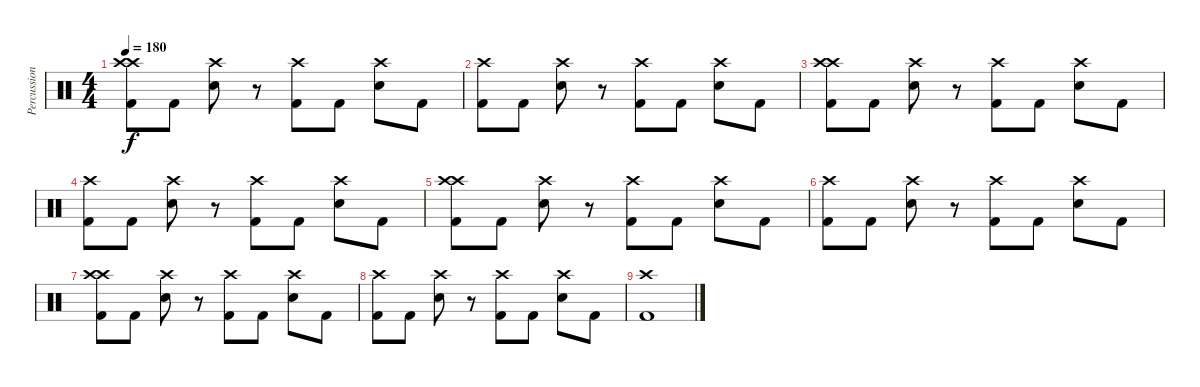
\track ("Percussion" "Percussion") {instrument percussion}
\staff {score}
\articulation defaults
\ts (4 4)
\tempo 180
\clef neutral
\ks c
("Crash high (hit)" "Kick (hit) 2" "Crash high (hit)").8{dy f} "Kick (hit) 2".8 ("Crash high (hit)" "Snare (hit) 2").8 r.8 ("Crash high (hit)" "Kick (hit) 2").8 "Kick (hit) 2".8 ("Crash high (hit)" "Snare (hit) 2").8 "Kick (hit) 2".8 |
("Crash high (hit)" "Kick (hit) 2").8 "Kick (hit) 2".8 ("Crash high (hit)" "Snare (hit) 2").8 r.8 ("Crash high (hit)" "Kick (hit) 2").8 "Kick (hit) 2".8 ("Crash high (hit)" "Snare (hit) 2").8 "Kick (hit) 2".8 |
("Crash high (hit)" "Kick (hit) 2" "Crash high (hit)").8 "Kick (hit) 2".8 ("Crash high (hit)" "Snare (hit) 2").8 r.8 ("Crash high (hit)" "Kick (hit) 2").8 "Kick (hit) 2".8 ("Crash high (hit)" "Snare (hit) 2").8 "Kick (hit) 2".8 |
("Crash high (hit)" "Kick (hit) 2").8 "Kick (hit) 2".8 ("Crash high (hit)" "Snare (hit) 2").8 r.8 ("Crash high (hit)" "Kick (hit) 2").8 "Kick (hit) 2".8 ("Crash high (hit)" "Snare (hit) 2").8 "Kick (hit) 2".8 |
("Crash high (hit)" "Kick (hit) 2" "Crash high (hit)").8 "Kick (hit) 2".8 ("Crash high (hit)" "Snare (hit) 2").8 r.8 ("Crash high (hit)" "Kick (hit) 2").8 "Kick (hit) 2".8 ("Crash high (hit)" "Snare (hit) 2").8 "Kick (hit) 2".8 |
("Crash high (hit)" "Kick (hit) 2").8 "Kick (hit) 2".8 ("Crash high (hit)" "Snare (hit) 2").8 r.8 ("Crash high (hit)" "Kick (hit) 2").8 "Kick (hit) 2".8 ("Crash high (hit)" "Snare (hit) 2").8 "Kick (hit) 2".8 |
("Crash high (hit)" "Kick (hit) 2" "Crash high (hit)").8 "Kick (hit) 2".8 ("Crash high (hit)" "Snare (hit) 2").8 r.8 ("Crash high (hit)" "Kick (hit) 2").8 "Kick (hit) 2".8 ("Crash high (hit)" "Snare (hit) 2").8 "Kick (hit) 2".8 |
("Crash high (hit)" "Kick (hit) 2").8 "Kick (hit) 2".8 ("Crash high (hit)" "Snare (hit) 2").8 r.8 ("Crash high (hit)" "Kick (hit) 2").8 "Kick (hit) 2".8 ("Crash high (hit)" "Snare (hit) 2").8 "Kick (hit) 2".8 |
("Kick (hit) 2" "Crash high (hit)").1
